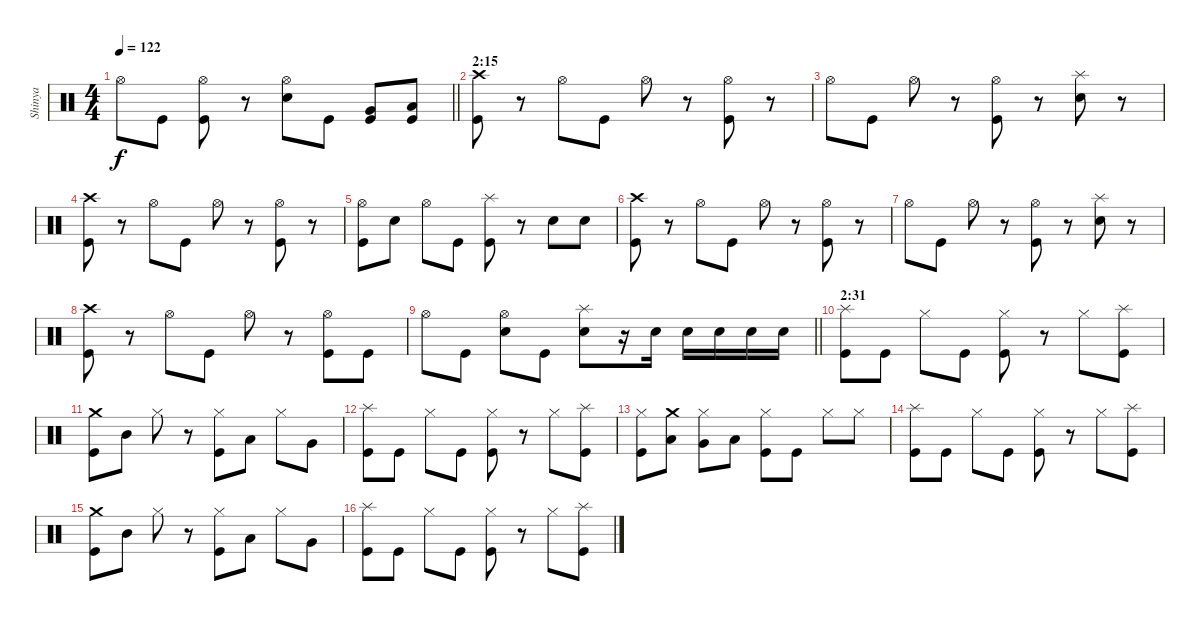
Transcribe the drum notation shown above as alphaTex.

\track ("Shinya" "Shinya") {instrument percussion}
\staff {score}
\articulation defaults
\ts (4 4)
\tempo 122
\clef neutral
\barLineRight lightlight
\ks c "Hi-Hat (open)".8{dy f} "Kick (hit)".8
("Hi-Hat (open)" "Kick (hit)").8 r.8 ("Hi-Hat (open)" "Snare (hit) 2").8 "Kick (hit)".8 ("Very Low Tom (hit)" "Kick (hit)").8 ("Low Floor Tom (hit)" "Kick (hit)").8 |
\section ("" "2:15")
("Crash high (hit)" "Kick (hit)").8 r.8 "Hi-Hat (open)".8 "Kick (hit)".8 "Hi-Hat (open)".8 r.8 ("Hi-Hat (open)" "Kick (hit)").8 r.8 |
"Hi-Hat (open)".8 "Kick (hit)".8 "Hi-Hat (open)".8 r.8 ("Hi-Hat (open)" "Kick (hit)").8 r.8 ("Splash (hit)" "Snare (hit) 2").8 r.8 |
("Crash high (hit)" "Kick (hit)").8 r.8 "Hi-Hat (open)".8 "Kick (hit)".8 "Hi-Hat (open)".8 r.8 ("Hi-Hat (open)" "Kick (hit)").8 r.8 |
("Hi-Hat (open)" "Kick (hit)").8 "Snare (hit) 2".8 "Hi-Hat (open)".8 "Kick (hit)".8 ("Splash (hit)" "Kick (hit)").8 r.8 "Snare (hit) 2".8 "Snare (hit) 2".8 |
("Crash high (hit)" "Kick (hit)").8 r.8 "Hi-Hat (open)".8 "Kick (hit)".8 "Hi-Hat (open)".8 r.8 ("Hi-Hat (open)" "Kick (hit)").8 r.8 |
"Hi-Hat (open)".8 "Kick (hit)".8 "Hi-Hat (open)".8 r.8 ("Hi-Hat (open)" "Kick (hit)").8 r.8 ("Splash (hit)" "Snare (hit) 2").8 r.8 |
("Crash high (hit)" "Kick (hit)").8 r.8 "Hi-Hat (open)".8 "Kick (hit)".8 "Hi-Hat (open)".8 r.8 ("Hi-Hat (open)" "Kick (hit)").8 "Kick (hit)".8 |
\barLineRight lightlight "Hi-Hat (open)".8 "Kick (hit)".8
("Hi-Hat (open)" "Snare (hit) 2").8 "Kick (hit)".8 ("Splash (hit)" "Snare (hit) 2").8 r.16 "Snare (hit) 2".16 "Snare (hit) 2".16 "Snare (hit) 2".16 "Snare (hit) 2".16 "Snare (hit) 2".16 |
\section ("" "2:31")
("Splash (hit)" "Kick (hit)").8 "Kick (hit)".8 "Hi-Hat (closed)".8 "Kick (hit)".8 ("Hi-Hat (closed)" "Kick (hit)").8 r.8 "Hi-Hat (closed)".8 ("Splash (hit)" "Kick (hit)").8 |
("Crash medium (hit)" "Kick (hit)").8 "Mid Tom (hit)".8 "Hi-Hat (closed)".8 r.8 ("Hi-Hat (closed)" "Kick (hit)").8 "Low Tom (hit)".8 "Hi-Hat (closed)".8 "Very Low Tom (hit)".8 |
("Splash (hit)" "Kick (hit)").8 "Kick (hit)".8 "Hi-Hat (closed)".8 "Kick (hit)".8 ("Hi-Hat (closed)" "Kick (hit)").8 r.8 "Hi-Hat (closed)".8 ("Splash (hit)" "Kick (hit)").8 |
("Hi-Hat (closed)" "Kick (hit)").8 ("Crash medium (hit)" "Low Floor Tom (hit)").8 ("Hi-Hat (closed)" "Very Low Tom (hit)").8 "Low Tom (hit)".8 ("Hi-Hat (closed)" "Kick (hit)").8 "Kick (hit)".8 "Hi-Hat (closed)".8 "Hi-Hat (closed)".8 |
("Splash (hit)" "Kick (hit)").8 "Kick (hit)".8 "Hi-Hat (closed)".8 "Kick (hit)".8 ("Hi-Hat (closed)" "Kick (hit)").8 r.8 "Hi-Hat (closed)".8 ("Splash (hit)" "Kick (hit)").8 |
("Crash medium (hit)" "Kick (hit)").8 "Mid Tom (hit)".8 "Hi-Hat (closed)".8 r.8 ("Hi-Hat (closed)" "Kick (hit)").8 "Low Tom (hit)".8 "Hi-Hat (closed)".8 "Very Low Tom (hit)".8 |
("Splash (hit)" "Kick (hit)").8 "Kick (hit)".8 "Hi-Hat (closed)".8 "Kick (hit)".8 ("Hi-Hat (closed)" "Kick (hit)").8 r.8 "Hi-Hat (closed)".8 ("Splash (hit)" "Kick (hit)").8
